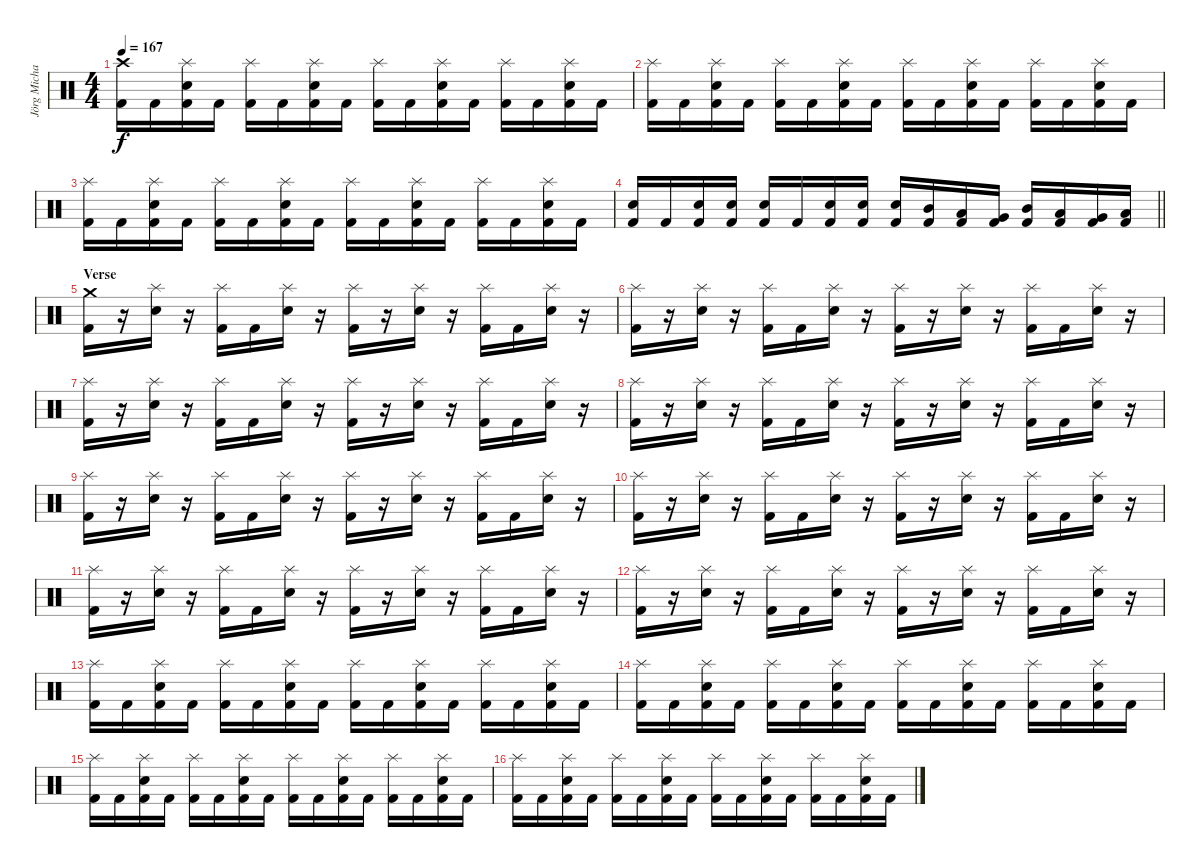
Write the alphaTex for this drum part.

\track ("Jörg Michael" "Jörg Micha") {instrument percussion}
\staff {score}
\articulation defaults
\ts (4 4)
\tempo 167
\clef neutral
\ks c
("Crash high (hit)" "Kick (hit) 2").16{dy f} "Kick (hit) 2".16 ("Splash (hit)" "Snare (hit) 2" "Kick (hit) 2").16 "Kick (hit) 2".16 ("Splash (hit)" "Kick (hit) 2").16 "Kick (hit) 2".16 ("Splash (hit)" "Snare (hit) 2" "Kick (hit) 2").16 "Kick (hit) 2".16 ("Splash (hit)" "Kick (hit) 2").16 "Kick (hit) 2".16 ("Splash (hit)" "Snare (hit) 2" "Kick (hit) 2").16 "Kick (hit) 2".16 ("Splash (hit)" "Kick (hit) 2").16 "Kick (hit) 2".16 ("Splash (hit)" "Snare (hit) 2" "Kick (hit) 2").16 "Kick (hit) 2".16 |
("Splash (hit)" "Kick (hit) 2").16 "Kick (hit) 2".16 ("Splash (hit)" "Snare (hit) 2" "Kick (hit) 2").16 "Kick (hit) 2".16 ("Splash (hit)" "Kick (hit) 2").16 "Kick (hit) 2".16 ("Splash (hit)" "Snare (hit) 2" "Kick (hit) 2").16 "Kick (hit) 2".16 ("Splash (hit)" "Kick (hit) 2").16 "Kick (hit) 2".16 ("Splash (hit)" "Snare (hit) 2" "Kick (hit) 2").16 "Kick (hit) 2".16 ("Splash (hit)" "Kick (hit) 2").16 "Kick (hit) 2".16 ("Splash (hit)" "Snare (hit) 2" "Kick (hit) 2").16 "Kick (hit) 2".16 |
("Splash (hit)" "Kick (hit) 2").16 "Kick (hit) 2".16 ("Splash (hit)" "Snare (hit) 2" "Kick (hit) 2").16 "Kick (hit) 2".16 ("Splash (hit)" "Kick (hit) 2").16 "Kick (hit) 2".16 ("Splash (hit)" "Snare (hit) 2" "Kick (hit) 2").16 "Kick (hit) 2".16 ("Splash (hit)" "Kick (hit) 2").16 "Kick (hit) 2".16 ("Splash (hit)" "Snare (hit) 2" "Kick (hit) 2").16 "Kick (hit) 2".16 ("Splash (hit)" "Kick (hit) 2").16 "Kick (hit) 2".16 ("Splash (hit)" "Snare (hit) 2" "Kick (hit) 2").16 "Kick (hit) 2".16 |
\barLineRight lightlight
("Snare (hit) 2" "Kick (hit) 2").16 "Kick (hit) 2".16 ("Snare (hit) 2" "Kick (hit) 2").16 ("Snare (hit) 2" "Kick (hit) 2").16 ("Snare (hit) 2" "Kick (hit) 2").16 "Kick (hit) 2".16 ("Snare (hit) 2" "Kick (hit) 2").16 ("Snare (hit) 2" "Kick (hit) 2").16 ("Snare (hit) 2" "Kick (hit) 2").16 ("Mid Tom (hit)" "Kick (hit) 2").16 ("Low Tom (hit)" "Kick (hit) 2").16 ("Very Low Tom (hit)" "Kick (hit) 2").16 ("Mid Tom (hit)" "Kick (hit) 2").16 ("Low Tom (hit)" "Kick (hit) 2").16 ("Very Low Tom (hit)" "Kick (hit) 2").16 ("Low Floor Tom (hit)" "Kick (hit) 2").16 |
\section ("" "Verse")
("Crash medium (hit)" "Kick (hit) 2").16 r.16 ("Splash (hit)" "Snare (hit) 2").16 r.16 ("Splash (hit)" "Kick (hit) 2").16 "Kick (hit) 2".16 ("Splash (hit)" "Snare (hit) 2").16 r.16 ("Splash (hit)" "Kick (hit) 2").16 r.16 ("Splash (hit)" "Snare (hit) 2").16 r.16 ("Splash (hit)" "Kick (hit) 2").16 "Kick (hit) 2".16 ("Splash (hit)" "Snare (hit) 2").16 r.16 |
("Splash (hit)" "Kick (hit) 2").16 r.16 ("Splash (hit)" "Snare (hit) 2").16 r.16 ("Splash (hit)" "Kick (hit) 2").16 "Kick (hit) 2".16 ("Splash (hit)" "Snare (hit) 2").16 r.16 ("Splash (hit)" "Kick (hit) 2").16 r.16 ("Splash (hit)" "Snare (hit) 2").16 r.16 ("Splash (hit)" "Kick (hit) 2").16 "Kick (hit) 2".16 ("Splash (hit)" "Snare (hit) 2").16 r.16 |
("Splash (hit)" "Kick (hit) 2").16 r.16 ("Splash (hit)" "Snare (hit) 2").16 r.16 ("Splash (hit)" "Kick (hit) 2").16 "Kick (hit) 2".16 ("Splash (hit)" "Snare (hit) 2").16 r.16 ("Splash (hit)" "Kick (hit) 2").16 r.16 ("Splash (hit)" "Snare (hit) 2").16 r.16 ("Splash (hit)" "Kick (hit) 2").16 "Kick (hit) 2".16 ("Splash (hit)" "Snare (hit) 2").16 r.16 |
("Splash (hit)" "Kick (hit) 2").16 r.16 ("Splash (hit)" "Snare (hit) 2").16 r.16 ("Splash (hit)" "Kick (hit) 2").16 "Kick (hit) 2".16 ("Splash (hit)" "Snare (hit) 2").16 r.16 ("Splash (hit)" "Kick (hit) 2").16 r.16 ("Splash (hit)" "Snare (hit) 2").16 r.16 ("Splash (hit)" "Kick (hit) 2").16 "Kick (hit) 2".16 ("Splash (hit)" "Snare (hit) 2").16 r.16 |
("Splash (hit)" "Kick (hit) 2").16 r.16 ("Splash (hit)" "Snare (hit) 2").16 r.16 ("Splash (hit)" "Kick (hit) 2").16 "Kick (hit) 2".16 ("Splash (hit)" "Snare (hit) 2").16 r.16 ("Splash (hit)" "Kick (hit) 2").16 r.16 ("Splash (hit)" "Snare (hit) 2").16 r.16 ("Splash (hit)" "Kick (hit) 2").16 "Kick (hit) 2".16 ("Splash (hit)" "Snare (hit) 2").16 r.16 |
("Splash (hit)" "Kick (hit) 2").16 r.16 ("Splash (hit)" "Snare (hit) 2").16 r.16 ("Splash (hit)" "Kick (hit) 2").16 "Kick (hit) 2".16 ("Splash (hit)" "Snare (hit) 2").16 r.16 ("Splash (hit)" "Kick (hit) 2").16 r.16 ("Splash (hit)" "Snare (hit) 2").16 r.16 ("Splash (hit)" "Kick (hit) 2").16 "Kick (hit) 2".16 ("Splash (hit)" "Snare (hit) 2").16 r.16 |
("Splash (hit)" "Kick (hit) 2").16 r.16 ("Splash (hit)" "Snare (hit) 2").16 r.16 ("Splash (hit)" "Kick (hit) 2").16 "Kick (hit) 2".16 ("Splash (hit)" "Snare (hit) 2").16 r.16 ("Splash (hit)" "Kick (hit) 2").16 r.16 ("Splash (hit)" "Snare (hit) 2").16 r.16 ("Splash (hit)" "Kick (hit) 2").16 "Kick (hit) 2".16 ("Splash (hit)" "Snare (hit) 2").16 r.16 |
("Splash (hit)" "Kick (hit) 2").16 r.16 ("Splash (hit)" "Snare (hit) 2").16 r.16 ("Splash (hit)" "Kick (hit) 2").16 "Kick (hit) 2".16 ("Splash (hit)" "Snare (hit) 2").16 r.16 ("Splash (hit)" "Kick (hit) 2").16 r.16 ("Splash (hit)" "Snare (hit) 2").16 r.16 ("Splash (hit)" "Kick (hit) 2").16 "Kick (hit) 2".16 ("Splash (hit)" "Snare (hit) 2").16 r.16 |
("Splash (hit)" "Kick (hit) 2").16 "Kick (hit) 2".16 ("Splash (hit)" "Snare (hit) 2" "Kick (hit) 2").16 "Kick (hit) 2".16 ("Splash (hit)" "Kick (hit) 2").16 "Kick (hit) 2".16 ("Splash (hit)" "Snare (hit) 2" "Kick (hit) 2").16 "Kick (hit) 2".16 ("Splash (hit)" "Kick (hit) 2").16 "Kick (hit) 2".16 ("Splash (hit)" "Snare (hit) 2" "Kick (hit) 2").16 "Kick (hit) 2".16 ("Splash (hit)" "Kick (hit) 2").16 "Kick (hit) 2".16 ("Splash (hit)" "Snare (hit) 2" "Kick (hit) 2").16 "Kick (hit) 2".16 |
("Splash (hit)" "Kick (hit) 2").16 "Kick (hit) 2".16 ("Splash (hit)" "Snare (hit) 2" "Kick (hit) 2").16 "Kick (hit) 2".16 ("Splash (hit)" "Kick (hit) 2").16 "Kick (hit) 2".16 ("Splash (hit)" "Snare (hit) 2" "Kick (hit) 2").16 "Kick (hit) 2".16 ("Splash (hit)" "Kick (hit) 2").16 "Kick (hit) 2".16 ("Splash (hit)" "Snare (hit) 2" "Kick (hit) 2").16 "Kick (hit) 2".16 ("Splash (hit)" "Kick (hit) 2").16 "Kick (hit) 2".16 ("Splash (hit)" "Snare (hit) 2" "Kick (hit) 2").16 "Kick (hit) 2".16 |
("Splash (hit)" "Kick (hit) 2").16 "Kick (hit) 2".16 ("Splash (hit)" "Snare (hit) 2" "Kick (hit) 2").16 "Kick (hit) 2".16 ("Splash (hit)" "Kick (hit) 2").16 "Kick (hit) 2".16 ("Splash (hit)" "Snare (hit) 2" "Kick (hit) 2").16 "Kick (hit) 2".16 ("Splash (hit)" "Kick (hit) 2").16 "Kick (hit) 2".16 ("Splash (hit)" "Snare (hit) 2" "Kick (hit) 2").16 "Kick (hit) 2".16 ("Splash (hit)" "Kick (hit) 2").16 "Kick (hit) 2".16 ("Splash (hit)" "Snare (hit) 2" "Kick (hit) 2").16 "Kick (hit) 2".16 |
("Splash (hit)" "Kick (hit) 2").16 "Kick (hit) 2".16 ("Splash (hit)" "Snare (hit) 2" "Kick (hit) 2").16 "Kick (hit) 2".16 ("Splash (hit)" "Kick (hit) 2").16 "Kick (hit) 2".16 ("Splash (hit)" "Snare (hit) 2" "Kick (hit) 2").16 "Kick (hit) 2".16 ("Splash (hit)" "Kick (hit) 2").16 "Kick (hit) 2".16 ("Splash (hit)" "Snare (hit) 2" "Kick (hit) 2").16 "Kick (hit) 2".16 ("Splash (hit)" "Kick (hit) 2").16 "Kick (hit) 2".16 ("Splash (hit)" "Snare (hit) 2" "Kick (hit) 2").16 "Kick (hit) 2".16
